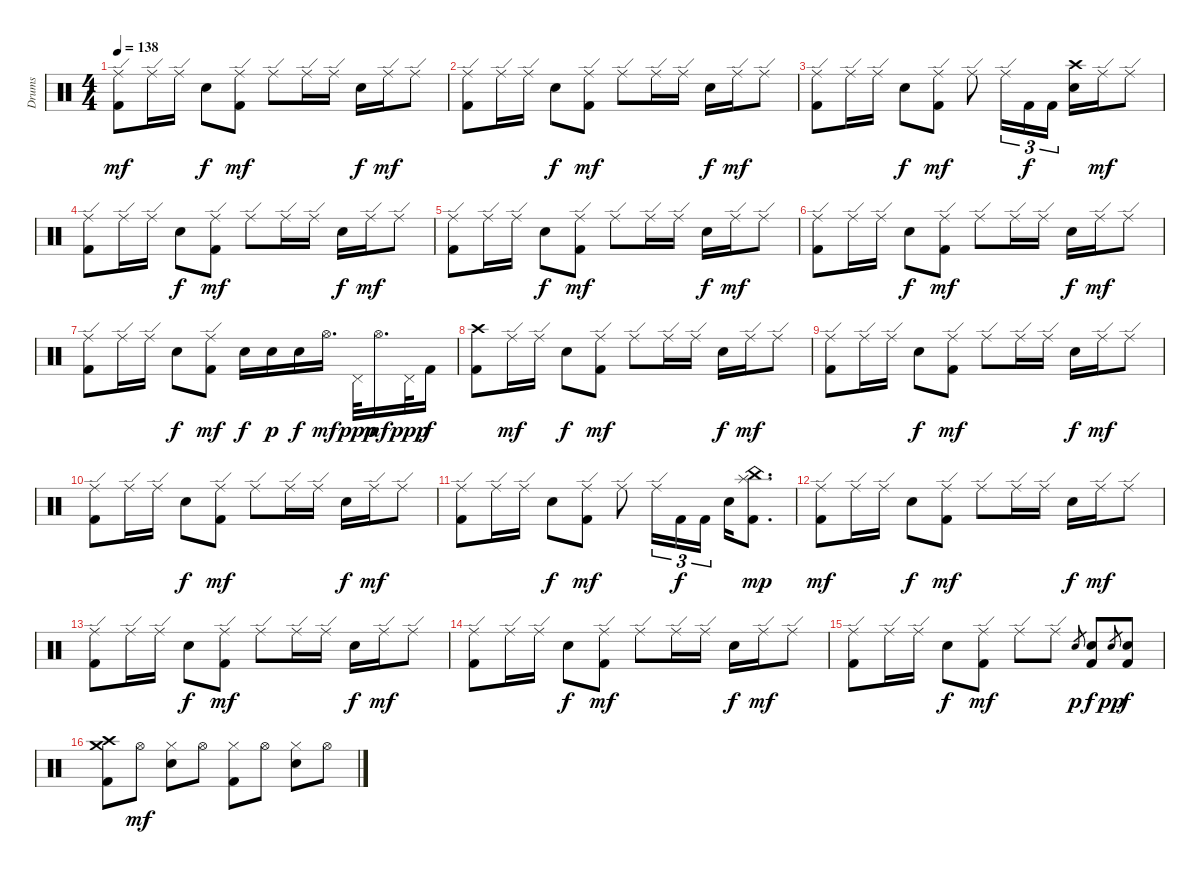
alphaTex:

\bracketExtendMode groupsimilarinstruments
\otherSystemsTrackNameOrientation horizontal
\track ("Drumkit" "Drums") {instrument percussion}
\staff {score}
\articulation defaults
\ts (4 4)
\tempo 138
\clef neutral
\ks c
("Ride (edge)" "Kick (hit) 2").8{dy mf beam Down} "Ride (edge)".16{beam Down} "Ride (edge)".16{beam Down} "Snare (hit) 2".8{dy f beam Down} ("Ride (edge)" "Kick (hit) 2").8{dy mf beam Down} "Ride (edge)".8{beam Down} "Ride (edge)".16{beam Down} "Ride (edge)".16{beam Down} "Snare (hit) 2".16{dy f beam Down} "Ride (edge)".16{dy mf beam Down} "Ride (edge)".8{beam Down} |
("Ride (edge)" "Kick (hit) 2").8{beam Down} "Ride (edge)".16{beam Down} "Ride (edge)".16{beam Down} "Snare (hit) 2".8{dy f beam Down} ("Ride (edge)" "Kick (hit) 2").8{dy mf beam Down} "Ride (edge)".8{beam Down} "Ride (edge)".16{beam Down} "Ride (edge)".16{beam Down} "Snare (hit) 2".16{dy f beam Down} "Ride (edge)".16{dy mf beam Down} "Ride (edge)".8{beam Down} |
("Ride (edge)" "Kick (hit) 2").8{beam Down} "Ride (edge)".16{beam Down} "Ride (edge)".16{beam Down} "Snare (hit) 2".8{dy f beam Down} ("Ride (edge)" "Kick (hit) 2").8{dy mf beam Down} "Ride (edge)".8{beam Down} "Ride (edge)".16{tu (3 2) beam Down} "Kick (hit) 2".16{tu (3 2) dy f beam Down} "Kick (hit) 2".16{tu (3 2) beam Down} ("Crash high (hit)" "Snare (hit) 2").16{beam Down} "Ride (edge)".16{dy mf beam Down} "Ride (edge)".8{beam Down} |
("Ride (edge)" "Kick (hit) 2").8{beam Down} "Ride (edge)".16{beam Down} "Ride (edge)".16{beam Down} "Snare (hit) 2".8{dy f beam Down} ("Ride (edge)" "Kick (hit) 2").8{dy mf beam Down} "Ride (edge)".8{beam Down} "Ride (edge)".16{beam Down} "Ride (edge)".16{beam Down} "Snare (hit) 2".16{dy f beam Down} "Ride (edge)".16{dy mf beam Down} "Ride (edge)".8{beam Down} |
("Ride (edge)" "Kick (hit) 2").8{beam Down} "Ride (edge)".16{beam Down} "Ride (edge)".16{beam Down} "Snare (hit) 2".8{dy f beam Down} ("Ride (edge)" "Kick (hit) 2").8{dy mf beam Down} "Ride (edge)".8{beam Down} "Ride (edge)".16{beam Down} "Ride (edge)".16{beam Down} "Snare (hit) 2".16{dy f beam Down} "Ride (edge)".16{dy mf beam Down} "Ride (edge)".8{beam Down} |
("Ride (edge)" "Kick (hit) 2").8{beam Down} "Ride (edge)".16{beam Down} "Ride (edge)".16{beam Down} "Snare (hit) 2".8{dy f beam Down} ("Ride (edge)" "Kick (hit) 2").8{dy mf beam Down} "Ride (edge)".8{beam Down} "Ride (edge)".16{beam Down} "Ride (edge)".16{beam Down} "Snare (hit) 2".16{dy f beam Down} "Ride (edge)".16{dy mf beam Down} "Ride (edge)".8{beam Down} |
("Ride (edge)" "Kick (hit) 2").8{beam Down} "Ride (edge)".16{beam Down} "Ride (edge)".16{beam Down} "Snare (hit) 2".8{dy f beam Down} ("Ride (edge)" "Kick (hit) 2").8{dy mf beam Down} "Snare (hit) 2".16{dy f beam Down} "Snare (hit) 2".16{dy p beam Down} "Snare (hit) 2".16{dy f beam Down} "Hi-Hat (open)".16{d dy mf beam Down} "Pedal Hi-Hat (hit)".32{dy ppp beam Down} "Hi-Hat (open)".16{d dy mf beam Down} "Pedal Hi-Hat (hit)".32{dy ppp beam Down} "Kick (hit) 2".16{dy f beam Down} |
("Crash high (hit)" "Kick (hit) 2").8{beam Down} "Ride (edge)".16{dy mf beam Down} "Ride (edge)".16{beam Down} "Snare (hit) 2".8{dy f beam Down} ("Ride (edge)" "Kick (hit) 2").8{dy mf beam Down} "Ride (edge)".8{beam Down} "Ride (edge)".16{beam Down} "Ride (edge)".16{beam Down} "Snare (hit) 2".16{dy f beam Down} "Ride (edge)".16{dy mf beam Down} "Ride (edge)".8{beam Down} |
("Ride (edge)" "Kick (hit) 2").8{beam Down} "Ride (edge)".16{beam Down} "Ride (edge)".16{beam Down} "Snare (hit) 2".8{dy f beam Down} ("Ride (edge)" "Kick (hit) 2").8{dy mf beam Down} "Ride (edge)".8{beam Down} "Ride (edge)".16{beam Down} "Ride (edge)".16{beam Down} "Snare (hit) 2".16{dy f beam Down} "Ride (edge)".16{dy mf beam Down} "Ride (edge)".8{beam Down} |
("Ride (edge)" "Kick (hit) 2").8{beam Down} "Ride (edge)".16{beam Down} "Ride (edge)".16{beam Down} "Snare (hit) 2".8{dy f beam Down} ("Ride (edge)" "Kick (hit) 2").8{dy mf beam Down} "Ride (edge)".8{beam Down} "Ride (edge)".16{beam Down} "Ride (edge)".16{beam Down} "Snare (hit) 2".16{dy f beam Down} "Ride (edge)".16{dy mf beam Down} "Ride (edge)".8{beam Down} |
("Ride (edge)" "Kick (hit) 2").8{beam Down} "Ride (edge)".16{beam Down} "Ride (edge)".16{beam Down} "Snare (hit) 2".8{dy f beam Down} ("Ride (edge)" "Kick (hit) 2").8{dy mf beam Down} "Ride (edge)".8{beam Down} "Ride (edge)".16{tu (3 2) beam Down} "Kick (hit) 2".16{tu (3 2) dy f beam Down} "Kick (hit) 2".16{tu (3 2) beam Down} "Snare (hit) 2".16{beam Down} ("China (hit)" "Splash (hit)" "Kick (hit) 2").8{d dy mp beam Down} |
("Ride (edge)" "Kick (hit) 2").8{dy mf beam Down} "Ride (edge)".16{beam Down} "Ride (edge)".16{beam Down} "Snare (hit) 2".8{dy f beam Down} ("Ride (edge)" "Kick (hit) 2").8{dy mf beam Down} "Ride (edge)".8{beam Down} "Ride (edge)".16{beam Down} "Ride (edge)".16{beam Down} "Snare (hit) 2".16{dy f beam Down} "Ride (edge)".16{dy mf beam Down} "Ride (edge)".8{beam Down} |
("Ride (edge)" "Kick (hit) 2").8{beam Down} "Ride (edge)".16{beam Down} "Ride (edge)".16{beam Down} "Snare (hit) 2".8{dy f beam Down} ("Ride (edge)" "Kick (hit) 2").8{dy mf beam Down} "Ride (edge)".8{beam Down} "Ride (edge)".16{beam Down} "Ride (edge)".16{beam Down} "Snare (hit) 2".16{dy f beam Down} "Ride (edge)".16{dy mf beam Down} "Ride (edge)".8{beam Down} |
("Ride (edge)" "Kick (hit) 2").8{beam Down} "Ride (edge)".16{beam Down} "Ride (edge)".16{beam Down} "Snare (hit) 2".8{dy f beam Down} ("Ride (edge)" "Kick (hit) 2").8{dy mf beam Down} "Ride (edge)".8{beam Down} "Ride (edge)".16{beam Down} "Ride (edge)".16{beam Down} "Snare (hit) 2".16{dy f beam Down} "Ride (edge)".16{dy mf beam Down} "Ride (edge)".8{beam Down} |
("Ride (edge)" "Kick (hit) 2").8{beam Down} "Ride (edge)".16{beam Down} "Ride (edge)".16{beam Down} "Snare (hit) 2".8{dy f beam Down} ("Ride (edge)" "Kick (hit) 2").8{dy mf beam Down} "Ride (edge)".8{beam Down} "Ride (edge)".8{beam Down} "Snare (hit) 2".8{gr dy p beam Up} ("Snare (hit) 2" "Kick (hit) 2").8{dy f beam Up} "Snare (hit) 2".8{gr dy pp beam Up} ("Snare (hit) 2" "Kick (hit) 2").8{dy f beam Up} |
("Crash high (hit)" "Crash medium (hit)" "Kick (hit) 2").8{beam Down} "Hi-Hat (open)".8{dy mf beam Down} ("Hi-Hat (closed)" "Snare (hit) 2").8{beam Down} "Hi-Hat (open)".8{beam Down} ("Hi-Hat (closed)" "Kick (hit) 2").8{beam Down} "Hi-Hat (open)".8{beam Down} ("Hi-Hat (closed)" "Snare (hit) 2").8{beam Down} "Hi-Hat (open)".8{beam Down}
